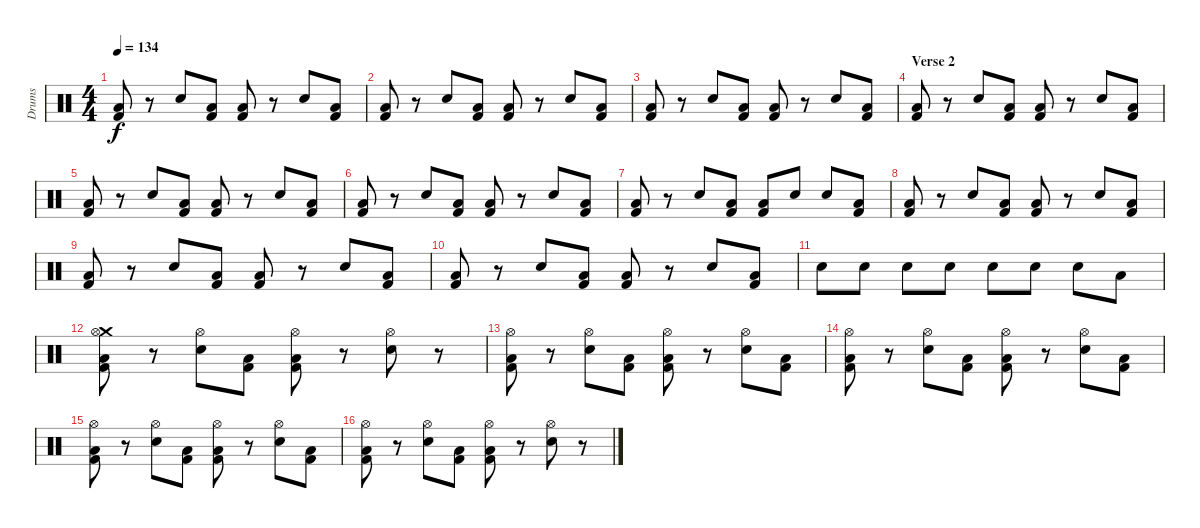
\track ("Drums" "Drums") {instrument percussion}
\staff {score}
\articulation defaults
\ts (4 4)
\tempo 134
\clef neutral
\ks c
("Kick (hit) 2" "Low Floor Tom (hit)").8{dy f} r.8 "Snare (hit) 2".8 ("Kick (hit) 2" "Low Floor Tom (hit)").8 ("Kick (hit) 2" "Low Floor Tom (hit)").8 r.8 "Snare (hit) 2".8 ("Kick (hit) 2" "Low Floor Tom (hit)").8 |
("Kick (hit) 2" "Low Floor Tom (hit)").8 r.8 "Snare (hit) 2".8 ("Kick (hit) 2" "Low Floor Tom (hit)").8 ("Kick (hit) 2" "Low Floor Tom (hit)").8 r.8 "Snare (hit) 2".8 ("Kick (hit) 2" "Low Floor Tom (hit)").8 |
("Kick (hit) 2" "Low Floor Tom (hit)").8 r.8 "Snare (hit) 2".8 ("Kick (hit) 2" "Low Floor Tom (hit)").8 ("Kick (hit) 2" "Low Floor Tom (hit)").8 r.8 "Snare (hit) 2".8 ("Kick (hit) 2" "Low Floor Tom (hit)").8 |
\section ("" "Verse 2")
("Kick (hit) 2" "Low Floor Tom (hit)").8 r.8 "Snare (hit) 2".8 ("Kick (hit) 2" "Low Floor Tom (hit)").8 ("Kick (hit) 2" "Low Floor Tom (hit)").8 r.8 "Snare (hit) 2".8 ("Kick (hit) 2" "Low Floor Tom (hit)").8 |
("Kick (hit) 2" "Low Floor Tom (hit)").8 r.8 "Snare (hit) 2".8 ("Kick (hit) 2" "Low Floor Tom (hit)").8 ("Kick (hit) 2" "Low Floor Tom (hit)").8 r.8 "Snare (hit) 2".8 ("Kick (hit) 2" "Low Floor Tom (hit)").8 |
("Kick (hit) 2" "Low Floor Tom (hit)").8 r.8 "Snare (hit) 2".8 ("Kick (hit) 2" "Low Floor Tom (hit)").8 ("Kick (hit) 2" "Low Floor Tom (hit)").8 r.8 "Snare (hit) 2".8 ("Kick (hit) 2" "Low Floor Tom (hit)").8 |
("Kick (hit) 2" "Low Floor Tom (hit)").8 r.8 "Snare (hit) 2".8 ("Kick (hit) 2" "Low Floor Tom (hit)").8 ("Kick (hit) 2" "Low Floor Tom (hit)").8 "Snare (hit) 2".8 "Snare (hit) 2".8 ("Kick (hit) 2" "Low Floor Tom (hit)").8 |
("Kick (hit) 2" "Low Floor Tom (hit)").8 r.8 "Snare (hit) 2".8 ("Kick (hit) 2" "Low Floor Tom (hit)").8 ("Kick (hit) 2" "Low Floor Tom (hit)").8 r.8 "Snare (hit) 2".8 ("Kick (hit) 2" "Low Floor Tom (hit)").8 |
("Kick (hit) 2" "Low Floor Tom (hit)").8 r.8 "Snare (hit) 2".8 ("Kick (hit) 2" "Low Floor Tom (hit)").8 ("Kick (hit) 2" "Low Floor Tom (hit)").8 r.8 "Snare (hit) 2".8 ("Kick (hit) 2" "Low Floor Tom (hit)").8 |
("Kick (hit) 2" "Low Floor Tom (hit)").8 r.8 "Snare (hit) 2".8 ("Kick (hit) 2" "Low Floor Tom (hit)").8 ("Kick (hit) 2" "Low Floor Tom (hit)").8 r.8 "Snare (hit) 2".8 ("Kick (hit) 2" "Low Floor Tom (hit)").8 |
"Snare (hit) 2".8 "Snare (hit) 2".8 "Snare (hit) 2".8 "Snare (hit) 2".8 "Snare (hit) 2".8 "Snare (hit) 2".8 "Snare (hit) 2".8 "Low Floor Tom (hit)".8 |
("Crash medium (hit)" "Hi-Hat (open)" "Kick (hit) 2" "Low Floor Tom (hit)").8 r.8 ("Hi-Hat (open)" "Snare (hit) 2").8 ("Kick (hit) 2" "Low Floor Tom (hit)").8 ("Hi-Hat (open)" "Kick (hit) 2" "Low Floor Tom (hit)").8 r.8 ("Hi-Hat (open)" "Snare (hit) 2").8 r.8 |
("Hi-Hat (open)" "Kick (hit) 2" "Low Floor Tom (hit)").8 r.8 ("Hi-Hat (open)" "Snare (hit) 2").8 ("Kick (hit) 2" "Low Floor Tom (hit)").8 ("Hi-Hat (open)" "Kick (hit) 2" "Low Floor Tom (hit)").8 r.8 ("Hi-Hat (open)" "Snare (hit) 2").8 ("Kick (hit) 2" "Low Floor Tom (hit)").8 |
("Hi-Hat (open)" "Kick (hit) 2" "Low Floor Tom (hit)").8 r.8 ("Hi-Hat (open)" "Snare (hit) 2").8 ("Kick (hit) 2" "Low Floor Tom (hit)").8 ("Hi-Hat (open)" "Kick (hit) 2" "Low Floor Tom (hit)").8 r.8 ("Hi-Hat (open)" "Snare (hit) 2").8 ("Kick (hit) 2" "Low Floor Tom (hit)").8 |
("Hi-Hat (open)" "Kick (hit) 2" "Low Floor Tom (hit)").8 r.8 ("Hi-Hat (open)" "Snare (hit) 2").8 ("Kick (hit) 2" "Low Floor Tom (hit)").8 ("Hi-Hat (open)" "Kick (hit) 2" "Low Floor Tom (hit)").8 r.8 ("Hi-Hat (open)" "Snare (hit) 2").8 ("Kick (hit) 2" "Low Floor Tom (hit)").8 |
("Hi-Hat (open)" "Kick (hit) 2" "Low Floor Tom (hit)").8 r.8 ("Hi-Hat (open)" "Snare (hit) 2").8 ("Kick (hit) 2" "Low Floor Tom (hit)").8 ("Hi-Hat (open)" "Kick (hit) 2" "Low Floor Tom (hit)").8 r.8 ("Hi-Hat (open)" "Snare (hit) 2").8 r.8
